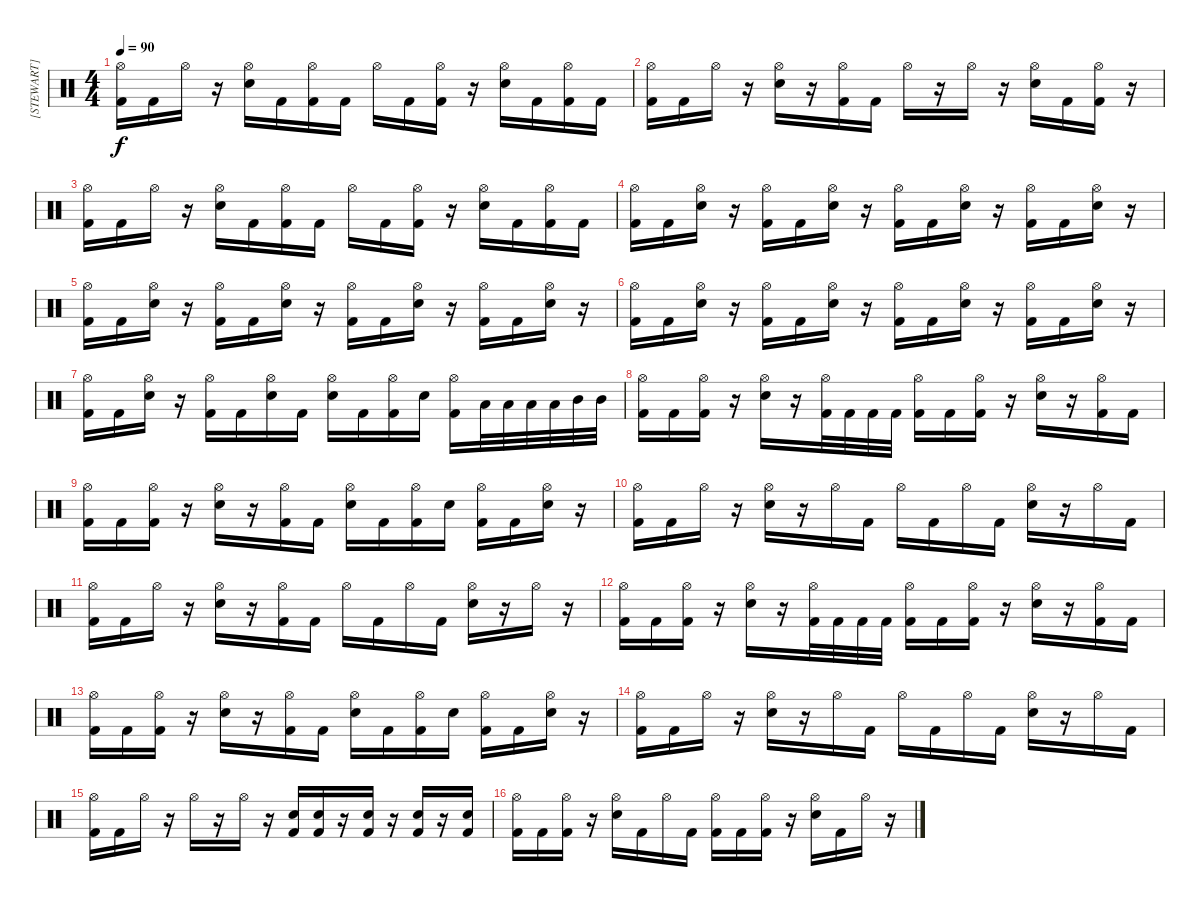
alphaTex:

\track ("[STEWART]" "[STEWART]") {instrument percussion}
\staff {score}
\articulation defaults
\ts (4 4)
\tempo 90
\clef neutral
\ks c
("Hi-Hat (open)" "Kick (hit) 2").16{dy f} "Kick (hit) 2".16 "Hi-Hat (open)".16 r.16 ("Hi-Hat (open)" "Snare (hit) 2").16 "Kick (hit) 2".16 ("Hi-Hat (open)" "Kick (hit) 2").16 "Kick (hit) 2".16 "Hi-Hat (open)".16 "Kick (hit) 2".16 ("Hi-Hat (open)" "Kick (hit) 2").16 r.16 ("Hi-Hat (open)" "Snare (hit) 2").16 "Kick (hit) 2".16 ("Hi-Hat (open)" "Kick (hit) 2").16 "Kick (hit) 2".16 |
("Hi-Hat (open)" "Kick (hit) 2").16 "Kick (hit) 2".16 "Hi-Hat (open)".16 r.16 ("Hi-Hat (open)" "Snare (hit) 2").16 r.16 ("Hi-Hat (open)" "Kick (hit) 2").16 "Kick (hit) 2".16 "Hi-Hat (open)".16 r.16 "Hi-Hat (open)".16 r.16 ("Hi-Hat (open)" "Snare (hit) 2").16 "Kick (hit) 2".16 ("Hi-Hat (open)" "Kick (hit) 2").16 r.16 |
("Hi-Hat (open)" "Kick (hit) 2").16 "Kick (hit) 2".16 "Hi-Hat (open)".16 r.16 ("Hi-Hat (open)" "Snare (hit) 2").16 "Kick (hit) 2".16 ("Hi-Hat (open)" "Kick (hit) 2").16 "Kick (hit) 2".16 "Hi-Hat (open)".16 "Kick (hit) 2".16 ("Hi-Hat (open)" "Kick (hit) 2").16 r.16 ("Hi-Hat (open)" "Snare (hit) 2").16 "Kick (hit) 2".16 ("Hi-Hat (open)" "Kick (hit) 2").16 "Kick (hit) 2".16 |
("Hi-Hat (open)" "Kick (hit) 2").16 "Kick (hit) 2".16 ("Hi-Hat (open)" "Snare (hit) 2").16 r.16 ("Hi-Hat (open)" "Kick (hit) 2").16 "Kick (hit) 2".16 ("Hi-Hat (open)" "Snare (hit) 2").16 r.16 ("Hi-Hat (open)" "Kick (hit) 2").16 "Kick (hit) 2".16 ("Hi-Hat (open)" "Snare (hit) 2").16 r.16 ("Hi-Hat (open)" "Kick (hit) 2").16 "Kick (hit) 2".16 ("Hi-Hat (open)" "Snare (hit) 2").16 r.16 |
("Hi-Hat (open)" "Kick (hit) 2").16 "Kick (hit) 2".16 ("Hi-Hat (open)" "Snare (hit) 2").16 r.16 ("Hi-Hat (open)" "Kick (hit) 2").16 "Kick (hit) 2".16 ("Hi-Hat (open)" "Snare (hit) 2").16 r.16 ("Hi-Hat (open)" "Kick (hit) 2").16 "Kick (hit) 2".16 ("Hi-Hat (open)" "Snare (hit) 2").16 r.16 ("Hi-Hat (open)" "Kick (hit) 2").16 "Kick (hit) 2".16 ("Hi-Hat (open)" "Snare (hit) 2").16 r.16 |
("Hi-Hat (open)" "Kick (hit) 2").16 "Kick (hit) 2".16 ("Hi-Hat (open)" "Snare (hit) 2").16 r.16 ("Hi-Hat (open)" "Kick (hit) 2").16 "Kick (hit) 2".16 ("Hi-Hat (open)" "Snare (hit) 2").16 r.16 ("Hi-Hat (open)" "Kick (hit) 2").16 "Kick (hit) 2".16 ("Hi-Hat (open)" "Snare (hit) 2").16 r.16 ("Hi-Hat (open)" "Kick (hit) 2").16 "Kick (hit) 2".16 ("Hi-Hat (open)" "Snare (hit) 2").16 r.16 |
("Hi-Hat (open)" "Kick (hit) 2").16 "Kick (hit) 2".16 ("Hi-Hat (open)" "Snare (hit) 2").16 r.16 ("Hi-Hat (open)" "Kick (hit) 2").16 "Kick (hit) 2".16 ("Hi-Hat (open)" "Snare (hit) 2").16 "Kick (hit) 2".16 ("Hi-Hat (open)" "Snare (hit) 2").16 "Kick (hit) 2".16 ("Hi-Hat (open)" "Kick (hit) 2").16 "Snare (hit) 2".16 ("Hi-Hat (open)" "Kick (hit) 2").16 "Low Floor Tom (hit)".32 "Low Floor Tom (hit)".32 "Low Tom (hit)".32 "Low Tom (hit)".32 "Mid Tom (hit)".32 "Mid Tom (hit)".32 |
("Hi-Hat (open)" "Kick (hit) 2").16 "Kick (hit) 2".16 ("Hi-Hat (open)" "Kick (hit) 2").16 r.16 ("Hi-Hat (open)" "Snare (hit) 2").16 r.16 ("Hi-Hat (open)" "Kick (hit) 2").32 "Kick (hit) 2".32 "Kick (hit) 2".32 "Kick (hit) 2".32 ("Hi-Hat (open)" "Kick (hit) 2").16 "Kick (hit) 2".16 ("Hi-Hat (open)" "Kick (hit) 2").16 r.16 ("Hi-Hat (open)" "Snare (hit) 2").16 r.16 ("Hi-Hat (open)" "Kick (hit) 2").16 "Kick (hit) 2".16 |
("Hi-Hat (open)" "Kick (hit) 2").16 "Kick (hit) 2".16 ("Hi-Hat (open)" "Kick (hit) 2").16 r.16 ("Hi-Hat (open)" "Snare (hit) 2").16 r.16 ("Hi-Hat (open)" "Kick (hit) 2").16 "Kick (hit) 2".16 ("Hi-Hat (open)" "Snare (hit) 2").16 "Kick (hit) 2".16 ("Hi-Hat (open)" "Kick (hit) 2").16 "Snare (hit) 2".16 ("Hi-Hat (open)" "Kick (hit) 2").16 "Kick (hit) 2".16 ("Hi-Hat (open)" "Snare (hit) 2").16 r.16 |
("Hi-Hat (open)" "Kick (hit) 2").16 "Kick (hit) 2".16 "Hi-Hat (open)".16 r.16 ("Hi-Hat (open)" "Snare (hit) 2").16 r.16 "Hi-Hat (open)".16 "Kick (hit) 2".16 "Hi-Hat (open)".16 "Kick (hit) 2".16 "Hi-Hat (open)".16 "Kick (hit) 2".16 ("Hi-Hat (open)" "Snare (hit) 2").16 r.16 "Hi-Hat (open)".16 "Kick (hit) 2".16 |
("Hi-Hat (open)" "Kick (hit) 2").16 "Kick (hit) 2".16 "Hi-Hat (open)".16 r.16 ("Hi-Hat (open)" "Snare (hit) 2").16 r.16 ("Hi-Hat (open)" "Kick (hit) 2").16 "Kick (hit) 2".16 "Hi-Hat (open)".16 "Kick (hit) 2".16 "Hi-Hat (open)".16 "Kick (hit) 2".16 ("Hi-Hat (open)" "Snare (hit) 2").16 r.16 "Hi-Hat (open)".16 r.16 |
("Hi-Hat (open)" "Kick (hit) 2").16 "Kick (hit) 2".16 ("Hi-Hat (open)" "Kick (hit) 2").16 r.16 ("Hi-Hat (open)" "Snare (hit) 2").16 r.16 ("Hi-Hat (open)" "Kick (hit) 2").32 "Kick (hit) 2".32 "Kick (hit) 2".32 "Kick (hit) 2".32 ("Hi-Hat (open)" "Kick (hit) 2").16 "Kick (hit) 2".16 ("Hi-Hat (open)" "Kick (hit) 2").16 r.16 ("Hi-Hat (open)" "Snare (hit) 2").16 r.16 ("Hi-Hat (open)" "Kick (hit) 2").16 "Kick (hit) 2".16 |
("Hi-Hat (open)" "Kick (hit) 2").16 "Kick (hit) 2".16 ("Hi-Hat (open)" "Kick (hit) 2").16 r.16 ("Hi-Hat (open)" "Snare (hit) 2").16 r.16 ("Hi-Hat (open)" "Kick (hit) 2").16 "Kick (hit) 2".16 ("Hi-Hat (open)" "Snare (hit) 2").16 "Kick (hit) 2".16 ("Hi-Hat (open)" "Kick (hit) 2").16 "Snare (hit) 2".16 ("Hi-Hat (open)" "Kick (hit) 2").16 "Kick (hit) 2".16 ("Hi-Hat (open)" "Snare (hit) 2").16 r.16 |
("Hi-Hat (open)" "Kick (hit) 2").16 "Kick (hit) 2".16 "Hi-Hat (open)".16 r.16 ("Hi-Hat (open)" "Snare (hit) 2").16 r.16 "Hi-Hat (open)".16 "Kick (hit) 2".16 "Hi-Hat (open)".16 "Kick (hit) 2".16 "Hi-Hat (open)".16 "Kick (hit) 2".16 ("Hi-Hat (open)" "Snare (hit) 2").16 r.16 "Hi-Hat (open)".16 "Kick (hit) 2".16 |
("Hi-Hat (open)" "Kick (hit) 2").16 "Kick (hit) 2".16 "Hi-Hat (open)".16 r.16 "Hi-Hat (open)".16 r.16 "Hi-Hat (open)".16 r.16 ("Snare (hit) 2" "Kick (hit) 2").16 ("Snare (hit) 2" "Kick (hit) 2").16 r.16 ("Snare (hit) 2" "Kick (hit) 2").16 r.16 ("Snare (hit) 2" "Kick (hit) 2").16 r.16 ("Snare (hit) 2" "Kick (hit) 2").16 |
("Hi-Hat (open)" "Kick (hit) 2").16 "Kick (hit) 2".16 ("Hi-Hat (open)" "Kick (hit) 2").16 r.16 ("Hi-Hat (open)" "Snare (hit) 2").16 "Kick (hit) 2".16 "Hi-Hat (open)".16 "Kick (hit) 2".16 ("Hi-Hat (open)" "Kick (hit) 2").16 "Kick (hit) 2".16 ("Hi-Hat (open)" "Kick (hit) 2").16 r.16 ("Hi-Hat (open)" "Snare (hit) 2").16 "Kick (hit) 2".16 "Hi-Hat (open)".16 r.16
